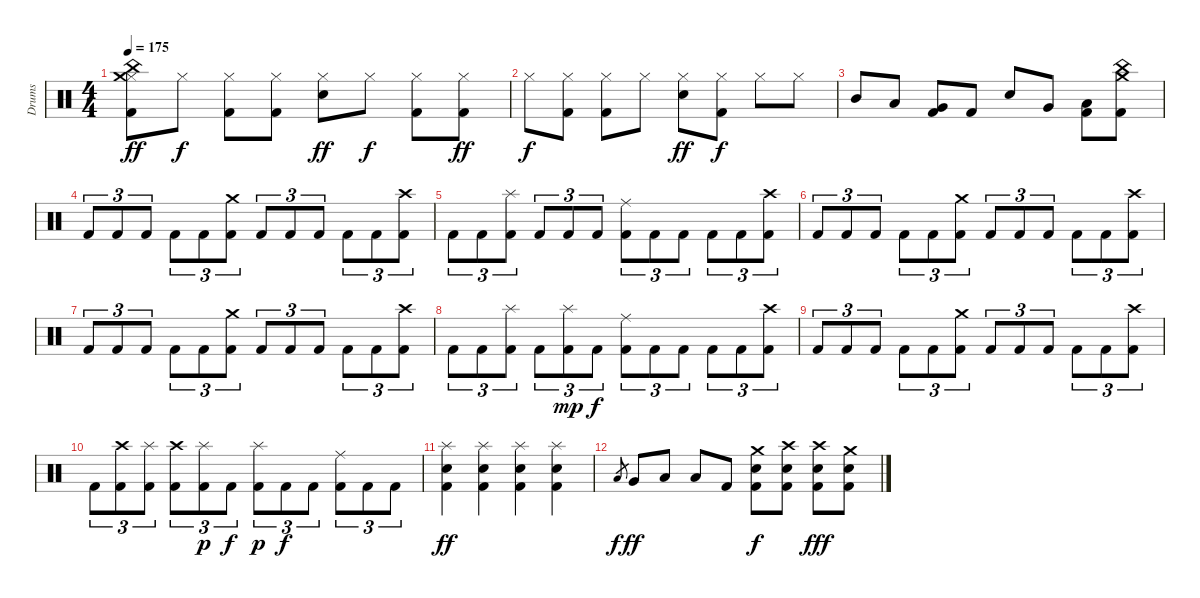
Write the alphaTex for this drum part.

\track ("Drums" "Drums") {instrument percussion}
\staff {score}
\articulation defaults
\ts (4 4)
\tempo 175
\clef neutral
\ks c
("Hi-Hat (closed)" "China (hit)" "Crash medium (hit)" "Kick (hit) 2").8{dy ff} "Hi-Hat (closed)".8{dy f} ("Hi-Hat (closed)" "Kick (hit) 2").8 ("Hi-Hat (closed)" "Kick (hit) 2").8 ("Hi-Hat (closed)" "Electric Snare (hit)").8{dy ff} "Hi-Hat (closed)".8{dy f} ("Hi-Hat (closed)" "Kick (hit) 2").8 ("Hi-Hat (closed)" "Kick (hit) 2").8{dy ff} |
"Hi-Hat (closed)".8{dy f} ("Hi-Hat (closed)" "Kick (hit) 2").8 ("Hi-Hat (closed)" "Kick (hit) 2").8 "Hi-Hat (closed)".8 ("Hi-Hat (closed)" "Electric Snare (hit)").8{dy ff} ("Hi-Hat (closed)" "Kick (hit) 2").8{dy f} "Hi-Hat (closed)".8 "Hi-Hat (closed)".8 |
"Mid Tom (hit)".8 "Low Tom (hit)".8 ("Very Low Tom (hit)" "Kick (hit) 2").8 "Kick (hit) 2".8 "Electric Snare (hit)".8 "Very Low Tom (hit)".8 ("Low Floor Tom (hit)" "Kick (hit) 2").8 ("China (hit)" "Crash medium (hit)" "Kick (hit) 2").8 |
\section ("" "")
"Kick (hit) 2".8{tu (3 2)} "Kick (hit) 2".8{tu (3 2)} "Kick (hit) 2".8{tu (3 2)} "Kick (hit) 2".8{tu (3 2)} "Kick (hit) 2".8{tu (3 2)} ("Crash medium (hit)" "Kick (hit) 2").8{tu (3 2)} "Kick (hit) 2".8{tu (3 2)} "Kick (hit) 2".8{tu (3 2)} "Kick (hit) 2".8{tu (3 2)} "Kick (hit) 2".8{tu (3 2)} "Kick (hit) 2".8{tu (3 2)} ("Crash high (hit)" "Kick (hit) 2").8{tu (3 2)} |
"Kick (hit) 2".8{tu (3 2)} "Kick (hit) 2".8{tu (3 2)} ("Splash (hit)" "Kick (hit) 2").8{tu (3 2)} "Kick (hit) 2".8{tu (3 2)} "Kick (hit) 2".8{tu (3 2)} "Kick (hit) 2".8{tu (3 2)} ("Ride (middle)" "Kick (hit) 2").8{tu (3 2)} "Kick (hit) 2".8{tu (3 2)} "Kick (hit) 2".8{tu (3 2)} "Kick (hit) 2".8{tu (3 2)} "Kick (hit) 2".8{tu (3 2)} ("Crash high (hit)" "Kick (hit) 2").8{tu (3 2)} |
"Kick (hit) 2".8{tu (3 2)} "Kick (hit) 2".8{tu (3 2)} "Kick (hit) 2".8{tu (3 2)} "Kick (hit) 2".8{tu (3 2)} "Kick (hit) 2".8{tu (3 2)} ("Crash medium (hit)" "Kick (hit) 2").8{tu (3 2)} "Kick (hit) 2".8{tu (3 2)} "Kick (hit) 2".8{tu (3 2)} "Kick (hit) 2".8{tu (3 2)} "Kick (hit) 2".8{tu (3 2)} "Kick (hit) 2".8{tu (3 2)} ("Crash high (hit)" "Kick (hit) 2").8{tu (3 2)} |
"Kick (hit) 2".8{tu (3 2)} "Kick (hit) 2".8{tu (3 2)} "Kick (hit) 2".8{tu (3 2)} "Kick (hit) 2".8{tu (3 2)} "Kick (hit) 2".8{tu (3 2)} ("Crash medium (hit)" "Kick (hit) 2").8{tu (3 2)} "Kick (hit) 2".8{tu (3 2)} "Kick (hit) 2".8{tu (3 2)} "Kick (hit) 2".8{tu (3 2)} "Kick (hit) 2".8{tu (3 2)} "Kick (hit) 2".8{tu (3 2)} ("Crash high (hit)" "Kick (hit) 2").8{tu (3 2)} |
"Kick (hit) 2".8{tu (3 2)} "Kick (hit) 2".8{tu (3 2)} ("Splash (hit)" "Kick (hit) 2").8{tu (3 2)} "Kick (hit) 2".8{tu (3 2)} ("Splash (hit)" "Kick (hit) 2").8{tu (3 2) dy mp} "Kick (hit) 2".8{tu (3 2) dy f} ("Ride (middle)" "Kick (hit) 2").8{tu (3 2)} "Kick (hit) 2".8{tu (3 2)} "Kick (hit) 2".8{tu (3 2)} "Kick (hit) 2".8{tu (3 2)} "Kick (hit) 2".8{tu (3 2)} ("Crash high (hit)" "Kick (hit) 2").8{tu (3 2)} |
"Kick (hit) 2".8{tu (3 2)} "Kick (hit) 2".8{tu (3 2)} "Kick (hit) 2".8{tu (3 2)} "Kick (hit) 2".8{tu (3 2)} "Kick (hit) 2".8{tu (3 2)} ("Crash medium (hit)" "Kick (hit) 2").8{tu (3 2)} "Kick (hit) 2".8{tu (3 2)} "Kick (hit) 2".8{tu (3 2)} "Kick (hit) 2".8{tu (3 2)} "Kick (hit) 2".8{tu (3 2)} "Kick (hit) 2".8{tu (3 2)} ("Crash high (hit)" "Kick (hit) 2").8{tu (3 2)} |
"Kick (hit) 2".8{tu (3 2)} ("Crash high (hit)" "Kick (hit) 2").8{tu (3 2)} ("Splash (hit)" "Kick (hit) 2").8{tu (3 2)} ("Crash high (hit)" "Kick (hit) 2").8{tu (3 2)} ("Splash (hit)" "Kick (hit) 2").8{tu (3 2) dy p} "Kick (hit) 2".8{tu (3 2) dy f} ("Splash (hit)" "Kick (hit) 2").8{tu (3 2) dy p} "Kick (hit) 2".8{tu (3 2) dy f} "Kick (hit) 2".8{tu (3 2)} ("Ride (middle)" "Kick (hit) 2").8{tu (3 2)} "Kick (hit) 2".8{tu (3 2)} "Kick (hit) 2".8{tu (3 2)} |
("Splash (hit)" "Electric Snare (hit)" "Kick (hit) 2").4{dy ff} ("Splash (hit)" "Electric Snare (hit)" "Kick (hit) 2").4 ("Splash (hit)" "Electric Snare (hit)" "Kick (hit) 2").4 ("Splash (hit)" "Electric Snare (hit)" "Kick (hit) 2").4 |
"Low Floor Tom (hit)".8{gr dy f} "Very Low Tom (hit)".8{dy ff} "Low Tom (hit)".8 "Low Tom (hit)".8 "Kick (hit) 2".8 ("Crash medium (hit)" "Electric Snare (hit)" "Kick (hit) 2").8{dy f} ("Crash high (hit)" "Electric Snare (hit)" "Kick (hit) 2").8 ("Crash high (hit)" "Electric Snare (hit)" "Kick (hit) 2").8{dy fff} ("Crash medium (hit)" "Electric Snare (hit)" "Kick (hit) 2").8
